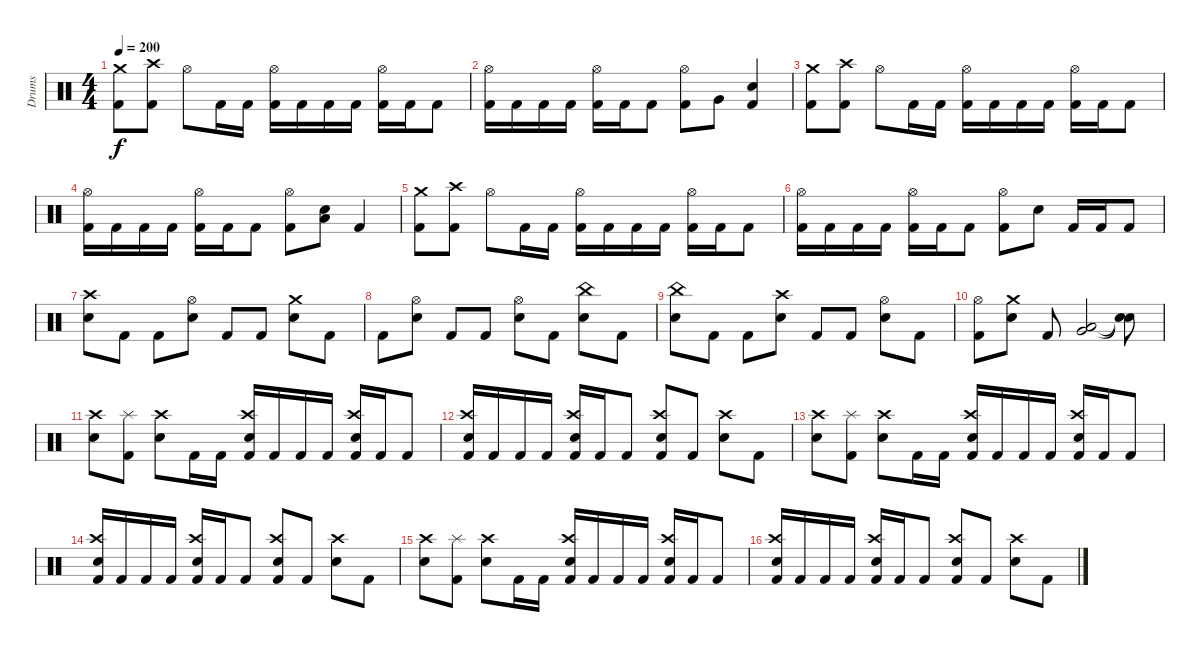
\track ("Drums" "Drums") {instrument percussion}
\staff {score}
\articulation defaults
\ts (4 4)
\tempo 200
\clef neutral
\ks c
("Crash medium (hit)" "Kick (hit) 2").8{dy f} ("Crash high (hit)" "Kick (hit) 2").8 "Hi-Hat (open)".8 "Kick (hit) 2".16 "Kick (hit) 2".16 ("Hi-Hat (open)" "Kick (hit) 2").16 "Kick (hit) 2".16 "Kick (hit) 2".16 "Kick (hit) 2".16 ("Hi-Hat (open)" "Kick (hit) 2").16 "Kick (hit) 2".16 "Kick (hit) 2".8 |
("Hi-Hat (open)" "Kick (hit) 2").16 "Kick (hit) 2".16 "Kick (hit) 2".16 "Kick (hit) 2".16 ("Hi-Hat (open)" "Kick (hit) 2").16 "Kick (hit) 2".16 "Kick (hit) 2".8 ("Hi-Hat (open)" "Kick (hit) 2").8 "Very Low Tom (hit)".8 ("Electric Snare (hit)" "Kick (hit) 2").4 |
("Crash medium (hit)" "Kick (hit) 2").8 ("Crash high (hit)" "Kick (hit) 2").8 "Hi-Hat (open)".8 "Kick (hit) 2".16 "Kick (hit) 2".16 ("Hi-Hat (open)" "Kick (hit) 2").16 "Kick (hit) 2".16 "Kick (hit) 2".16 "Kick (hit) 2".16 ("Hi-Hat (open)" "Kick (hit) 2").16 "Kick (hit) 2".16 "Kick (hit) 2".8 |
("Hi-Hat (open)" "Kick (hit) 2").16 "Kick (hit) 2".16 "Kick (hit) 2".16 "Kick (hit) 2".16 ("Hi-Hat (open)" "Kick (hit) 2").16 "Kick (hit) 2".16 "Kick (hit) 2".8 ("Hi-Hat (open)" "Kick (hit) 2").8 ("Low Floor Tom (hit)" "Electric Snare (hit)").8 "Kick (hit) 2".4 |
("Crash medium (hit)" "Kick (hit) 2").8 ("Crash high (hit)" "Kick (hit) 2").8 "Hi-Hat (open)".8 "Kick (hit) 2".16 "Kick (hit) 2".16 ("Hi-Hat (open)" "Kick (hit) 2").16 "Kick (hit) 2".16 "Kick (hit) 2".16 "Kick (hit) 2".16 ("Hi-Hat (open)" "Kick (hit) 2").16 "Kick (hit) 2".16 "Kick (hit) 2".8 |
("Hi-Hat (open)" "Kick (hit) 2").16 "Kick (hit) 2".16 "Kick (hit) 2".16 "Kick (hit) 2".16 ("Hi-Hat (open)" "Kick (hit) 2").16 "Kick (hit) 2".16 "Kick (hit) 2".8 ("Hi-Hat (open)" "Kick (hit) 2").8 "Electric Snare (hit)".8 "Kick (hit) 2".16 "Kick (hit) 2".16 "Kick (hit) 2".8 |
("Crash high (hit)" "Electric Snare (hit)").8 "Kick (hit) 2".8 "Kick (hit) 2".8 ("Hi-Hat (open)" "Electric Snare (hit)").8 "Kick (hit) 2".8 "Kick (hit) 2".8 ("Crash medium (hit)" "Electric Snare (hit)").8 "Kick (hit) 2".8 |
"Kick (hit) 2".8 ("Hi-Hat (open)" "Electric Snare (hit)").8 "Kick (hit) 2".8 "Kick (hit) 2".8 ("Hi-Hat (open)" "Electric Snare (hit)").8 "Kick (hit) 2".8 ("China (hit)" "Electric Snare (hit)").8 "Kick (hit) 2".8 |
("China (hit)" "Electric Snare (hit)").8 "Kick (hit) 2".8 "Kick (hit) 2".8 ("Crash high (hit)" "Electric Snare (hit)").8 "Kick (hit) 2".8 "Kick (hit) 2".8 ("Hi-Hat (open)" "Electric Snare (hit)").8 "Kick (hit) 2".8 |
("Hi-Hat (open)" "Kick (hit) 2").8 ("Crash medium (hit)" "Electric Snare (hit)").8 "Kick (hit) 2".8 ("Very Low Tom (hit)" "Low Floor Tom (hit)").2 ("Snare (hit)"{t} "Snare (hit)"{t}).8 |
("Crash high (hit)" "Electric Snare (hit)").8 ("Splash (hit)" "Kick (hit) 2").8 ("Crash high (hit)" "Electric Snare (hit)").8 "Kick (hit) 2".16 "Kick (hit) 2".16 ("Crash high (hit)" "Electric Snare (hit)" "Kick (hit) 2").16 "Kick (hit) 2".16 "Kick (hit) 2".16 "Kick (hit) 2".16 ("Crash high (hit)" "Electric Snare (hit)" "Kick (hit) 2").16 "Kick (hit) 2".16 "Kick (hit) 2".8 |
("Crash high (hit)" "Electric Snare (hit)" "Kick (hit) 2").16 "Kick (hit) 2".16 "Kick (hit) 2".16 "Kick (hit) 2".16 ("Crash high (hit)" "Electric Snare (hit)" "Kick (hit) 2").16 "Kick (hit) 2".16 "Kick (hit) 2".8 ("Crash high (hit)" "Electric Snare (hit)" "Kick (hit) 2").8 "Kick (hit) 2".8 ("Crash high (hit)" "Electric Snare (hit)").8 "Kick (hit) 2".8 |
("Crash high (hit)" "Electric Snare (hit)").8 ("Splash (hit)" "Kick (hit) 2").8 ("Crash high (hit)" "Electric Snare (hit)").8 "Kick (hit) 2".16 "Kick (hit) 2".16 ("Crash high (hit)" "Electric Snare (hit)" "Kick (hit) 2").16 "Kick (hit) 2".16 "Kick (hit) 2".16 "Kick (hit) 2".16 ("Crash high (hit)" "Electric Snare (hit)" "Kick (hit) 2").16 "Kick (hit) 2".16 "Kick (hit) 2".8 |
("Crash high (hit)" "Electric Snare (hit)" "Kick (hit) 2").16 "Kick (hit) 2".16 "Kick (hit) 2".16 "Kick (hit) 2".16 ("Crash high (hit)" "Electric Snare (hit)" "Kick (hit) 2").16 "Kick (hit) 2".16 "Kick (hit) 2".8 ("Crash high (hit)" "Electric Snare (hit)" "Kick (hit) 2").8 "Kick (hit) 2".8 ("Crash high (hit)" "Electric Snare (hit)").8 "Kick (hit) 2".8 |
("Crash high (hit)" "Electric Snare (hit)").8 ("Splash (hit)" "Kick (hit) 2").8 ("Crash high (hit)" "Electric Snare (hit)").8 "Kick (hit) 2".16 "Kick (hit) 2".16 ("Crash high (hit)" "Electric Snare (hit)" "Kick (hit) 2").16 "Kick (hit) 2".16 "Kick (hit) 2".16 "Kick (hit) 2".16 ("Crash high (hit)" "Electric Snare (hit)" "Kick (hit) 2").16 "Kick (hit) 2".16 "Kick (hit) 2".8 |
("Crash high (hit)" "Electric Snare (hit)" "Kick (hit) 2").16 "Kick (hit) 2".16 "Kick (hit) 2".16 "Kick (hit) 2".16 ("Crash high (hit)" "Electric Snare (hit)" "Kick (hit) 2").16 "Kick (hit) 2".16 "Kick (hit) 2".8 ("Crash high (hit)" "Electric Snare (hit)" "Kick (hit) 2").8 "Kick (hit) 2".8 ("Crash high (hit)" "Electric Snare (hit)").8 "Kick (hit) 2".8
